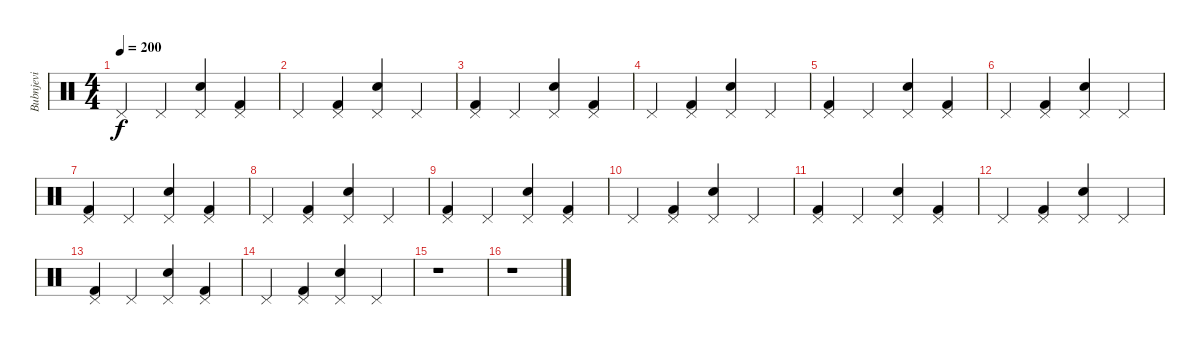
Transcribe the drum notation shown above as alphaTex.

\track ("Bubnjevi" "Bubnjevi") {instrument percussion}
\staff {score}
\articulation defaults
\ts (4 4)
\tempo 200
\clef neutral
\ks c "Pedal Hi-Hat (hit)".4{dy f} "Pedal Hi-Hat (hit)".4
("Pedal Hi-Hat (hit)" "Electric Snare (hit)").4 ("Pedal Hi-Hat (hit)" "Kick (hit) 2").4 |
"Pedal Hi-Hat (hit)".4 ("Pedal Hi-Hat (hit)" "Kick (hit) 2").4 ("Pedal Hi-Hat (hit)" "Electric Snare (hit)").4 "Pedal Hi-Hat (hit)".4 |
("Pedal Hi-Hat (hit)" "Kick (hit) 2").4 "Pedal Hi-Hat (hit)".4 ("Pedal Hi-Hat (hit)" "Electric Snare (hit)").4 ("Pedal Hi-Hat (hit)" "Kick (hit) 2").4 |
"Pedal Hi-Hat (hit)".4 ("Pedal Hi-Hat (hit)" "Kick (hit) 2").4 ("Pedal Hi-Hat (hit)" "Electric Snare (hit)").4 "Pedal Hi-Hat (hit)".4 |
("Pedal Hi-Hat (hit)" "Kick (hit) 2").4 "Pedal Hi-Hat (hit)".4 ("Pedal Hi-Hat (hit)" "Electric Snare (hit)").4 ("Pedal Hi-Hat (hit)" "Kick (hit) 2").4 |
"Pedal Hi-Hat (hit)".4 ("Pedal Hi-Hat (hit)" "Kick (hit) 2").4 ("Pedal Hi-Hat (hit)" "Electric Snare (hit)").4 "Pedal Hi-Hat (hit)".4 |
("Pedal Hi-Hat (hit)" "Kick (hit) 2").4 "Pedal Hi-Hat (hit)".4 ("Pedal Hi-Hat (hit)" "Electric Snare (hit)").4 ("Pedal Hi-Hat (hit)" "Kick (hit) 2").4 |
"Pedal Hi-Hat (hit)".4 ("Pedal Hi-Hat (hit)" "Kick (hit) 2").4 ("Pedal Hi-Hat (hit)" "Electric Snare (hit)").4 "Pedal Hi-Hat (hit)".4 |
("Pedal Hi-Hat (hit)" "Kick (hit) 2").4 "Pedal Hi-Hat (hit)".4 ("Pedal Hi-Hat (hit)" "Electric Snare (hit)").4 ("Pedal Hi-Hat (hit)" "Kick (hit) 2").4 |
"Pedal Hi-Hat (hit)".4 ("Pedal Hi-Hat (hit)" "Kick (hit) 2").4 ("Pedal Hi-Hat (hit)" "Electric Snare (hit)").4 "Pedal Hi-Hat (hit)".4 |
("Pedal Hi-Hat (hit)" "Kick (hit) 2").4 "Pedal Hi-Hat (hit)".4 ("Pedal Hi-Hat (hit)" "Electric Snare (hit)").4 ("Pedal Hi-Hat (hit)" "Kick (hit) 2").4 |
"Pedal Hi-Hat (hit)".4 ("Pedal Hi-Hat (hit)" "Kick (hit) 2").4 ("Pedal Hi-Hat (hit)" "Electric Snare (hit)").4 "Pedal Hi-Hat (hit)".4 |
("Pedal Hi-Hat (hit)" "Kick (hit) 2").4 "Pedal Hi-Hat (hit)".4 ("Pedal Hi-Hat (hit)" "Electric Snare (hit)").4 ("Pedal Hi-Hat (hit)" "Kick (hit) 2").4 |
"Pedal Hi-Hat (hit)".4 ("Pedal Hi-Hat (hit)" "Kick (hit) 2").4 ("Pedal Hi-Hat (hit)" "Electric Snare (hit)").4 "Pedal Hi-Hat (hit)".4 |
r.1 |
r.1
